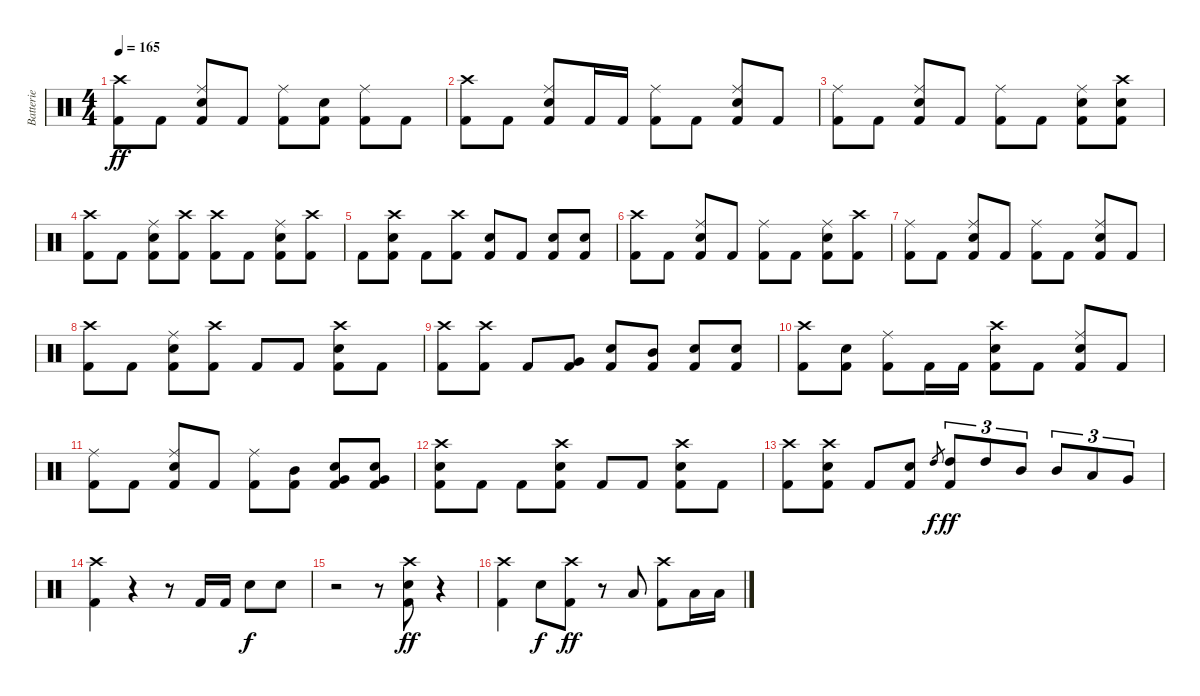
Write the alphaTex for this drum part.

\track ("Batterie" "Batterie") {instrument percussion}
\staff {score}
\articulation defaults
\ts (4 4)
\tempo 165
\clef neutral
\ks c
("Crash high (hit)" "Kick (hit) 2").8{dy ff} "Kick (hit) 2".8 ("Ride (middle)" "Snare (hit) 2" "Kick (hit) 2").8 "Kick (hit) 2".8 ("Ride (middle)" "Kick (hit) 2").8 ("Snare (hit) 2" "Kick (hit) 2").8 ("Ride (middle)" "Kick (hit) 2").8 "Kick (hit) 2".8 |
("Crash high (hit)" "Kick (hit) 2").8 "Kick (hit) 2".8 ("Ride (middle)" "Snare (hit) 2" "Kick (hit) 2").8 "Kick (hit) 2".16 "Kick (hit) 2".16 ("Ride (middle)" "Kick (hit) 2").8 "Kick (hit) 2".8 ("Ride (middle)" "Snare (hit) 2" "Kick (hit) 2").8 "Kick (hit) 2".8 |
("Ride (middle)" "Kick (hit) 2").8 "Kick (hit) 2".8 ("Ride (middle)" "Snare (hit) 2" "Kick (hit) 2").8 "Kick (hit) 2".8 ("Ride (middle)" "Kick (hit) 2").8 "Kick (hit) 2".8 ("Ride (middle)" "Snare (hit) 2" "Kick (hit) 2").8 ("Crash high (hit)" "Snare (hit) 2" "Kick (hit) 2").8 |
("Crash high (hit)" "Kick (hit) 2").8 "Kick (hit) 2".8 ("Ride (middle)" "Snare (hit) 2" "Kick (hit) 2").8 ("Crash high (hit)" "Kick (hit) 2").8 ("Crash high (hit)" "Kick (hit) 2").8 "Kick (hit) 2".8 ("Ride (middle)" "Snare (hit) 2" "Kick (hit) 2").8 ("Crash high (hit)" "Kick (hit) 2").8 |
"Kick (hit) 2".8 ("Crash high (hit)" "Snare (hit) 2" "Kick (hit) 2").8 "Kick (hit) 2".8 ("Crash high (hit)" "Kick (hit) 2").8 ("Snare (hit) 2" "Kick (hit) 2").8 "Kick (hit) 2".8 ("Snare (hit) 2" "Kick (hit) 2").8 ("Snare (hit) 2" "Kick (hit) 2").8 |
("Crash high (hit)" "Kick (hit) 2").8 "Kick (hit) 2".8 ("Ride (middle)" "Snare (hit) 2" "Kick (hit) 2").8 "Kick (hit) 2".8 ("Ride (middle)" "Kick (hit) 2").8 "Kick (hit) 2".8 ("Ride (middle)" "Snare (hit) 2" "Kick (hit) 2").8 ("Crash high (hit)" "Kick (hit) 2").8 |
("Ride (middle)" "Kick (hit) 2").8 "Kick (hit) 2".8 ("Ride (middle)" "Snare (hit) 2" "Kick (hit) 2").8 "Kick (hit) 2".8 ("Ride (middle)" "Kick (hit) 2").8 "Kick (hit) 2".8 ("Ride (middle)" "Snare (hit) 2" "Kick (hit) 2").8 "Kick (hit) 2".8 |
("Crash high (hit)" "Kick (hit) 2").8 "Kick (hit) 2".8 ("Ride (middle)" "Snare (hit) 2" "Kick (hit) 2").8 ("Crash high (hit)" "Kick (hit) 2").8 "Kick (hit) 2".8 "Kick (hit) 2".8 ("Crash high (hit)" "Snare (hit) 2" "Kick (hit) 2").8 "Kick (hit) 2".8 |
("Crash high (hit)" "Kick (hit) 2").8 ("Crash high (hit)" "Kick (hit) 2").8 "Kick (hit) 2".8 ("Very Low Tom (hit)" "Kick (hit) 2").8 ("Snare (hit) 2" "Kick (hit) 2").8 ("Mid Tom (hit)" "Kick (hit) 2").8 ("Snare (hit) 2" "Kick (hit) 2").8 ("Snare (hit) 2" "Kick (hit) 2").8 |
("Crash high (hit)" "Kick (hit) 2").8 ("Snare (hit) 2" "Kick (hit) 2").8 ("Ride (middle)" "Kick (hit) 2").8 "Kick (hit) 2".16 "Kick (hit) 2".16 ("Crash high (hit)" "Snare (hit) 2" "Kick (hit) 2").8 "Kick (hit) 2".8 ("Ride (middle)" "Snare (hit) 2" "Kick (hit) 2").8 "Kick (hit) 2".8 |
("Ride (middle)" "Kick (hit) 2").8 "Kick (hit) 2".8 ("Ride (middle)" "Snare (hit) 2" "Kick (hit) 2").8 "Kick (hit) 2".8 ("Ride (middle)" "Kick (hit) 2").8 ("Mid Tom (hit)" "Kick (hit) 2").8 ("Snare (hit) 2" "Very Low Tom (hit)" "Kick (hit) 2").8 ("Snare (hit) 2" "Very Low Tom (hit)" "Kick (hit) 2").8 |
("Crash high (hit)" "Snare (hit) 2" "Kick (hit) 2").8 "Kick (hit) 2".8 "Kick (hit) 2".8 ("Crash high (hit)" "Snare (hit) 2" "Kick (hit) 2").8 "Kick (hit) 2".8 "Kick (hit) 2".8 ("Crash high (hit)" "Snare (hit) 2" "Kick (hit) 2").8 "Kick (hit) 2".8 |
("Crash high (hit)" "Kick (hit) 2").8 ("Crash high (hit)" "Snare (hit) 2" "Kick (hit) 2").8 "Kick (hit) 2".8 ("Snare (hit) 2" "Kick (hit) 2").8 "High Tom (hit)".8{gr dy f} ("High Tom (hit)" "Kick (hit) 2").8{tu (3 2) dy ff} "High Tom (hit)".8{tu (3 2)} "Mid Tom (hit)".8{tu (3 2)} "Mid Tom (hit)".8{tu (3 2)} "Low Tom (hit)".8{tu (3 2)} "Very Low Tom (hit)".8{tu (3 2)} |
("Crash high (hit)" "Kick (hit) 2").4 r.4 r.8 "Kick (hit) 2".16 "Kick (hit) 2".16 "Snare (hit) 2".8{dy f} "Snare (hit) 2".8 |
r.2 r.8 ("Crash high (hit)" "Snare (hit) 2" "Kick (hit) 2").8{dy ff} r.4 |
("Crash high (hit)" "Kick (hit) 2").4 "Snare (hit) 2".8{dy f} ("Crash high (hit)" "Kick (hit) 2").8{dy ff} r.8 "Low Tom (hit)".8 ("Crash high (hit)" "Kick (hit) 2").8 "Low Tom (hit)".16 "Low Tom (hit)".16
